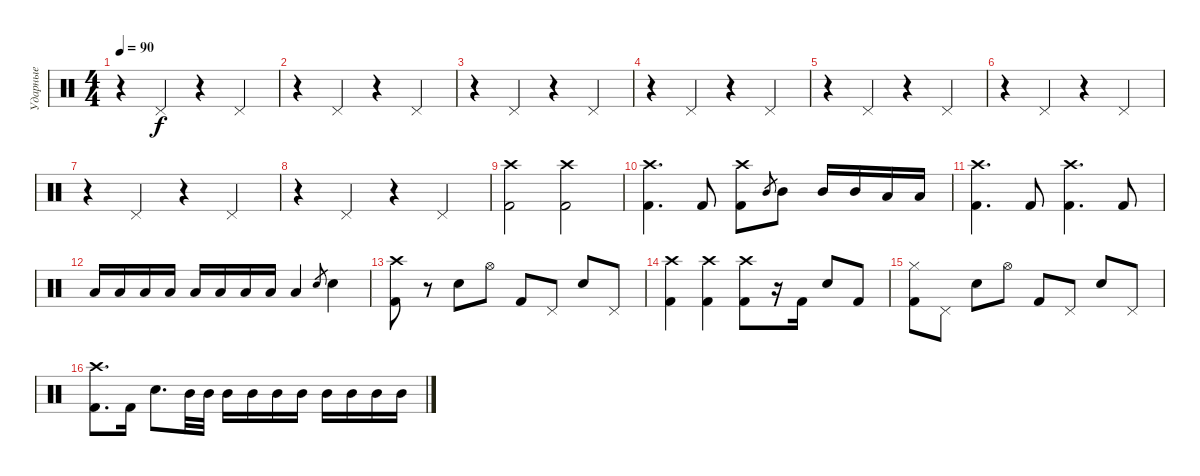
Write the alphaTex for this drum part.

\track ("Ударные" "Ударные") {instrument percussion}
\staff {score}
\articulation defaults
\ts (4 4)
\tempo 90
\clef neutral
\ks c
r.4{dy f balance 0} "Pedal Hi-Hat (hit)".4 r.4 "Pedal Hi-Hat (hit)".4 |
r.4 "Pedal Hi-Hat (hit)".4 r.4 "Pedal Hi-Hat (hit)".4 |
r.4 "Pedal Hi-Hat (hit)".4 r.4 "Pedal Hi-Hat (hit)".4 |
r.4 "Pedal Hi-Hat (hit)".4 r.4 "Pedal Hi-Hat (hit)".4 |
r.4 "Pedal Hi-Hat (hit)".4 r.4 "Pedal Hi-Hat (hit)".4 |
r.4 "Pedal Hi-Hat (hit)".4 r.4 "Pedal Hi-Hat (hit)".4 |
r.4 "Pedal Hi-Hat (hit)".4 r.4 "Pedal Hi-Hat (hit)".4 |
r.4 "Pedal Hi-Hat (hit)".4 r.4 "Pedal Hi-Hat (hit)".4 |
("Crash high (hit)" "Kick (hit) 2").2{balance 8} ("Crash high (hit)" "Kick (hit) 2").2 |
("Crash high (hit)" "Kick (hit) 2").4{d} "Kick (hit) 2".8 ("Crash high (hit)" "Kick (hit) 2").8 "Mid Tom (hit)".8{gr} "Mid Tom (hit)".8 "Mid Tom (hit)".16 "Mid Tom (hit)".16 "Low Tom (hit)".16 "Low Tom (hit)".16 |
("Crash high (hit)" "Kick (hit) 2").4{d} "Kick (hit) 2".8 ("Crash high (hit)" "Kick (hit) 2").4{d} "Kick (hit) 2".8 |
"Low Tom (hit)".16 "Low Tom (hit)".16 "Low Tom (hit)".16 "Low Tom (hit)".16 "Low Tom (hit)".16 "Low Tom (hit)".16 "Low Tom (hit)".16 "Low Tom (hit)".16 "Low Tom (hit)".4 "Snare (hit) 2".8{gr} "Electric Snare (hit)".4 |
("Crash high (hit)" "Kick (hit) 2").8 r.8 "Snare (hit) 2".8 "Hi-Hat (open)".8 "Kick (hit) 2".8 "Pedal Hi-Hat (hit)".8 "Snare (hit) 2".8 "Pedal Hi-Hat (hit)".8 |
("Crash high (hit)" "Kick (hit) 2").4 ("Crash high (hit)" "Kick (hit) 2").4 ("Crash high (hit)" "Kick (hit) 2").8 r.16 "Kick (hit) 2".16 "Snare (hit) 2".8 "Kick (hit) 2".8 |
("Hi-Hat (closed)" "Kick (hit) 2").8 "Pedal Hi-Hat (hit)".8 "Snare (hit) 2".8 "Hi-Hat (open)".8 "Kick (hit) 2".8 "Pedal Hi-Hat (hit)".8 "Snare (hit) 2".8 "Pedal Hi-Hat (hit)".8 |
("Crash high (hit)" "Kick (hit) 2").8{d} "Kick (hit) 2".16 "Snare (hit) 2".8{d} "Mid Tom (hit)".32 "Mid Tom (hit)".32 "Mid Tom (hit)".16 "Mid Tom (hit)".16 "Mid Tom (hit)".16 "Mid Tom (hit)".16 "Mid Tom (hit)".16 "Mid Tom (hit)".16 "Mid Tom (hit)".16 "Mid Tom (hit)".16
